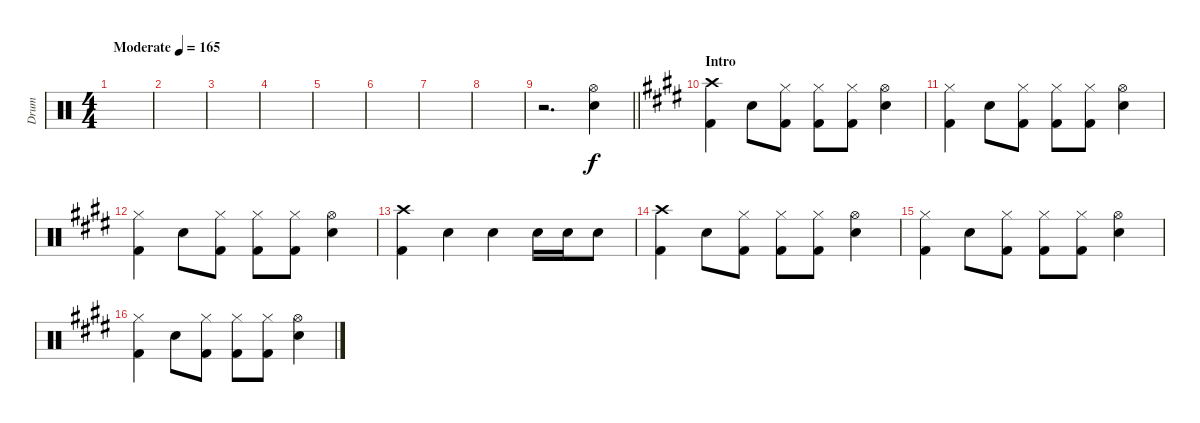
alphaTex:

\track ("Drum" "Drum") {instrument percussion}
\staff {score}
\articulation defaults
\ts (4 4)
\section ("" "")
\tempo (165 "Moderate")
\clef neutral
\ks c
|
|
|
|
|
|
|
|
\barLineRight lightlight
r.2{d} ("Hi-Hat (open)" "Electric Snare (hit)").4 |
\section ("" "Intro")
\ks e
("Crash high (hit)" "Kick (hit) 2").4 "Electric Snare (hit)".8 ("Hi-Hat (closed)" "Kick (hit) 2").8 ("Hi-Hat (closed)" "Kick (hit) 2").8 ("Hi-Hat (closed)" "Kick (hit) 2").8 ("Hi-Hat (open)" "Electric Snare (hit)").4 |
("Hi-Hat (closed)" "Kick (hit) 2").4 "Electric Snare (hit)".8 ("Hi-Hat (closed)" "Kick (hit) 2").8 ("Hi-Hat (closed)" "Kick (hit) 2").8 ("Hi-Hat (closed)" "Kick (hit) 2").8 ("Hi-Hat (open)" "Electric Snare (hit)").4 |
("Hi-Hat (closed)" "Kick (hit) 2").4 "Electric Snare (hit)".8 ("Hi-Hat (closed)" "Kick (hit) 2").8 ("Hi-Hat (closed)" "Kick (hit) 2").8 ("Hi-Hat (closed)" "Kick (hit) 2").8 ("Hi-Hat (open)" "Electric Snare (hit)").4 |
("Crash high (hit)" "Kick (hit) 2").4 "Electric Snare (hit)".4 "Electric Snare (hit)".4 "Electric Snare (hit)".16 "Electric Snare (hit)".16 "Electric Snare (hit)".8 |
("Crash high (hit)" "Kick (hit) 2").4 "Electric Snare (hit)".8 ("Hi-Hat (closed)" "Kick (hit) 2").8 ("Hi-Hat (closed)" "Kick (hit) 2").8 ("Hi-Hat (closed)" "Kick (hit) 2").8 ("Hi-Hat (open)" "Electric Snare (hit)").4 |
("Hi-Hat (closed)" "Kick (hit) 2").4 "Electric Snare (hit)".8 ("Hi-Hat (closed)" "Kick (hit) 2").8 ("Hi-Hat (closed)" "Kick (hit) 2").8 ("Hi-Hat (closed)" "Kick (hit) 2").8 ("Hi-Hat (open)" "Electric Snare (hit)").4 |
("Hi-Hat (closed)" "Kick (hit) 2").4 "Electric Snare (hit)".8 ("Hi-Hat (closed)" "Kick (hit) 2").8 ("Hi-Hat (closed)" "Kick (hit) 2").8 ("Hi-Hat (closed)" "Kick (hit) 2").8 ("Hi-Hat (open)" "Electric Snare (hit)").4
